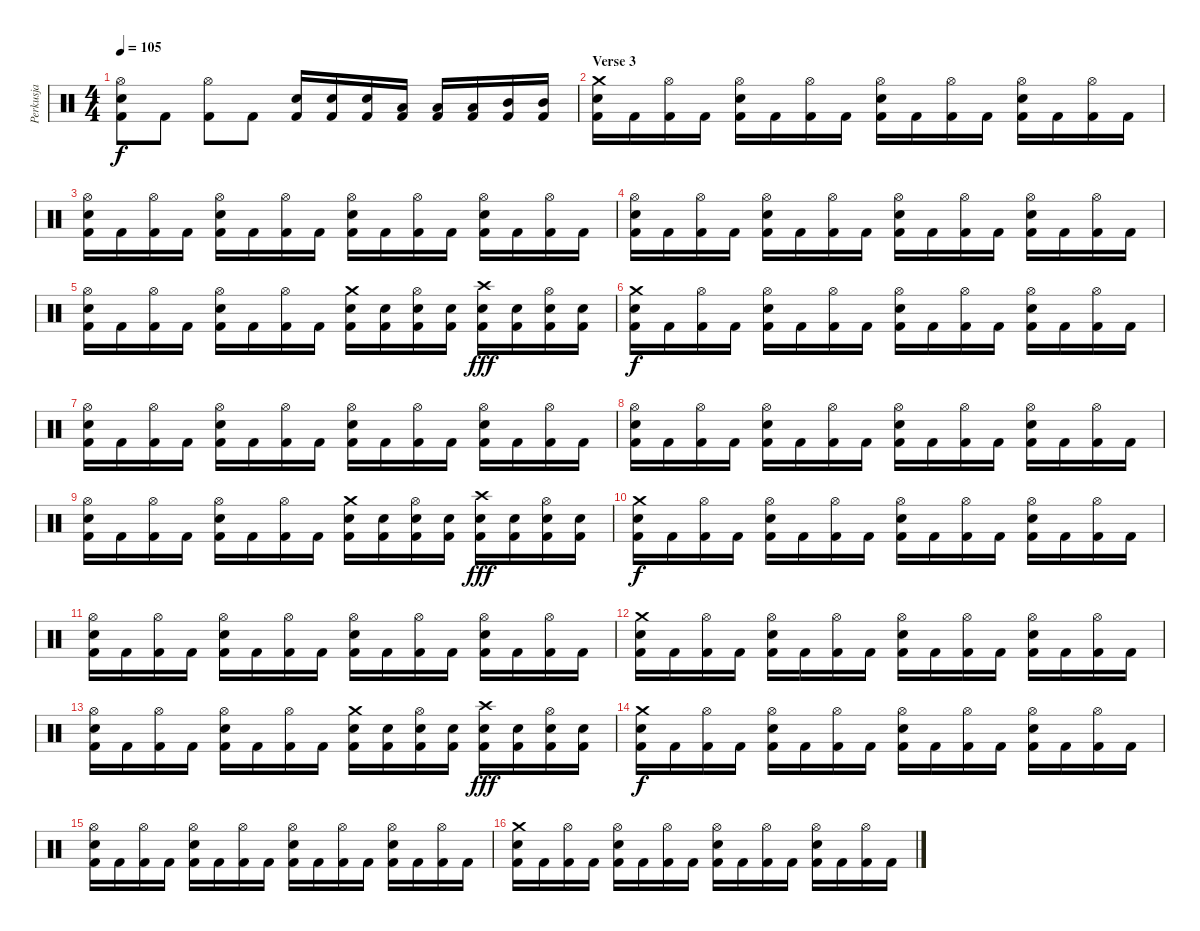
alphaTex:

\track ("Perkusja" "Perkusja") {instrument percussion}
\staff {score}
\articulation defaults
\ts (4 4)
\tempo 105
\clef neutral
\ks c
("Kick (hit) 2" "Snare (hit) 2" "Hi-Hat (open)").8{dy f} "Kick (hit) 2".8 ("Kick (hit) 2" "Hi-Hat (open)").8 "Kick (hit) 2".8 ("Kick (hit) 2" "Snare (hit) 2").16 ("Kick (hit) 2" "Snare (hit) 2").16 ("Kick (hit) 2" "Snare (hit) 2").16 ("Kick (hit) 2" "Low Tom (hit)").16 ("Kick (hit) 2" "Low Tom (hit)").16 ("Kick (hit) 2" "Low Tom (hit)").16 ("Kick (hit) 2" "Mid Tom (hit)").16 ("Kick (hit) 2" "Mid Tom (hit)").16 |
\section ("" "Verse 3")
("Kick (hit) 2" "Snare (hit) 2" "Crash medium (hit)").16 "Kick (hit) 2".16 ("Kick (hit) 2" "Hi-Hat (open)").16 "Kick (hit) 2".16 ("Kick (hit) 2" "Snare (hit) 2" "Hi-Hat (open)").16 "Kick (hit) 2".16 ("Kick (hit) 2" "Hi-Hat (open)").16 "Kick (hit) 2".16 ("Kick (hit) 2" "Snare (hit) 2" "Hi-Hat (open)").16 "Kick (hit) 2".16 ("Kick (hit) 2" "Hi-Hat (open)").16 "Kick (hit) 2".16 ("Kick (hit) 2" "Snare (hit) 2" "Hi-Hat (open)").16 "Kick (hit) 2".16 ("Kick (hit) 2" "Hi-Hat (open)").16 "Kick (hit) 2".16 |
("Kick (hit) 2" "Snare (hit) 2" "Hi-Hat (open)").16 "Kick (hit) 2".16 ("Kick (hit) 2" "Hi-Hat (open)").16 "Kick (hit) 2".16 ("Kick (hit) 2" "Snare (hit) 2" "Hi-Hat (open)").16 "Kick (hit) 2".16 ("Kick (hit) 2" "Hi-Hat (open)").16 "Kick (hit) 2".16 ("Kick (hit) 2" "Snare (hit) 2" "Hi-Hat (open)").16 "Kick (hit) 2".16 ("Kick (hit) 2" "Hi-Hat (open)").16 "Kick (hit) 2".16 ("Kick (hit) 2" "Snare (hit) 2" "Hi-Hat (open)").16 "Kick (hit) 2".16 ("Kick (hit) 2" "Hi-Hat (open)").16 "Kick (hit) 2".16 |
("Kick (hit) 2" "Snare (hit) 2" "Hi-Hat (open)").16 "Kick (hit) 2".16 ("Kick (hit) 2" "Hi-Hat (open)").16 "Kick (hit) 2".16 ("Kick (hit) 2" "Snare (hit) 2" "Hi-Hat (open)").16 "Kick (hit) 2".16 ("Kick (hit) 2" "Hi-Hat (open)").16 "Kick (hit) 2".16 ("Kick (hit) 2" "Snare (hit) 2" "Hi-Hat (open)").16 "Kick (hit) 2".16 ("Kick (hit) 2" "Hi-Hat (open)").16 "Kick (hit) 2".16 ("Kick (hit) 2" "Snare (hit) 2" "Hi-Hat (open)").16 "Kick (hit) 2".16 ("Kick (hit) 2" "Hi-Hat (open)").16 "Kick (hit) 2".16 |
("Kick (hit) 2" "Snare (hit) 2" "Hi-Hat (open)").16 "Kick (hit) 2".16 ("Kick (hit) 2" "Hi-Hat (open)").16 "Kick (hit) 2".16 ("Kick (hit) 2" "Snare (hit) 2" "Hi-Hat (open)").16 "Kick (hit) 2".16 ("Kick (hit) 2" "Hi-Hat (open)").16 "Kick (hit) 2".16 ("Kick (hit) 2" "Snare (hit) 2" "Crash medium (hit)").16 ("Kick (hit) 2" "Snare (hit) 2").16 ("Kick (hit) 2" "Snare (hit) 2" "Hi-Hat (open)").16 ("Kick (hit) 2" "Snare (hit) 2").16 ("Kick (hit) 2" "Electric Snare (hit)" "Crash high (hit)").16{dy fff} ("Kick (hit) 2" "Electric Snare (hit)").16 ("Kick (hit) 2" "Electric Snare (hit)" "Hi-Hat (open)").16 ("Kick (hit) 2" "Electric Snare (hit)").16 |
("Kick (hit) 2" "Snare (hit) 2" "Crash medium (hit)").16{dy f} "Kick (hit) 2".16 ("Kick (hit) 2" "Hi-Hat (open)").16 "Kick (hit) 2".16 ("Kick (hit) 2" "Snare (hit) 2" "Hi-Hat (open)").16 "Kick (hit) 2".16 ("Kick (hit) 2" "Hi-Hat (open)").16 "Kick (hit) 2".16 ("Kick (hit) 2" "Snare (hit) 2" "Hi-Hat (open)").16 "Kick (hit) 2".16 ("Kick (hit) 2" "Hi-Hat (open)").16 "Kick (hit) 2".16 ("Kick (hit) 2" "Snare (hit) 2" "Hi-Hat (open)").16 "Kick (hit) 2".16 ("Kick (hit) 2" "Hi-Hat (open)").16 "Kick (hit) 2".16 |
("Kick (hit) 2" "Snare (hit) 2" "Hi-Hat (open)").16 "Kick (hit) 2".16 ("Kick (hit) 2" "Hi-Hat (open)").16 "Kick (hit) 2".16 ("Kick (hit) 2" "Snare (hit) 2" "Hi-Hat (open)").16 "Kick (hit) 2".16 ("Kick (hit) 2" "Hi-Hat (open)").16 "Kick (hit) 2".16 ("Kick (hit) 2" "Snare (hit) 2" "Hi-Hat (open)").16 "Kick (hit) 2".16 ("Kick (hit) 2" "Hi-Hat (open)").16 "Kick (hit) 2".16 ("Kick (hit) 2" "Snare (hit) 2" "Hi-Hat (open)").16 "Kick (hit) 2".16 ("Kick (hit) 2" "Hi-Hat (open)").16 "Kick (hit) 2".16 |
("Kick (hit) 2" "Snare (hit) 2" "Hi-Hat (open)").16 "Kick (hit) 2".16 ("Kick (hit) 2" "Hi-Hat (open)").16 "Kick (hit) 2".16 ("Kick (hit) 2" "Snare (hit) 2" "Hi-Hat (open)").16 "Kick (hit) 2".16 ("Kick (hit) 2" "Hi-Hat (open)").16 "Kick (hit) 2".16 ("Kick (hit) 2" "Snare (hit) 2" "Hi-Hat (open)").16 "Kick (hit) 2".16 ("Kick (hit) 2" "Hi-Hat (open)").16 "Kick (hit) 2".16 ("Kick (hit) 2" "Snare (hit) 2" "Hi-Hat (open)").16 "Kick (hit) 2".16 ("Kick (hit) 2" "Hi-Hat (open)").16 "Kick (hit) 2".16 |
("Kick (hit) 2" "Snare (hit) 2" "Hi-Hat (open)").16 "Kick (hit) 2".16 ("Kick (hit) 2" "Hi-Hat (open)").16 "Kick (hit) 2".16 ("Kick (hit) 2" "Snare (hit) 2" "Hi-Hat (open)").16 "Kick (hit) 2".16 ("Kick (hit) 2" "Hi-Hat (open)").16 "Kick (hit) 2".16 ("Kick (hit) 2" "Snare (hit) 2" "Crash medium (hit)").16 ("Kick (hit) 2" "Snare (hit) 2").16 ("Kick (hit) 2" "Snare (hit) 2" "Hi-Hat (open)").16 ("Kick (hit) 2" "Snare (hit) 2").16 ("Kick (hit) 2" "Electric Snare (hit)" "Crash high (hit)").16{dy fff} ("Kick (hit) 2" "Electric Snare (hit)").16 ("Kick (hit) 2" "Electric Snare (hit)" "Hi-Hat (open)").16 ("Kick (hit) 2" "Electric Snare (hit)").16 |
("Kick (hit) 2" "Snare (hit) 2" "Crash medium (hit)").16{dy f} "Kick (hit) 2".16 ("Kick (hit) 2" "Hi-Hat (open)").16 "Kick (hit) 2".16 ("Kick (hit) 2" "Snare (hit) 2" "Hi-Hat (open)").16 "Kick (hit) 2".16 ("Kick (hit) 2" "Hi-Hat (open)").16 "Kick (hit) 2".16 ("Kick (hit) 2" "Snare (hit) 2" "Hi-Hat (open)").16 "Kick (hit) 2".16 ("Kick (hit) 2" "Hi-Hat (open)").16 "Kick (hit) 2".16 ("Kick (hit) 2" "Snare (hit) 2" "Hi-Hat (open)").16 "Kick (hit) 2".16 ("Kick (hit) 2" "Hi-Hat (open)").16 "Kick (hit) 2".16 |
("Kick (hit) 2" "Snare (hit) 2" "Hi-Hat (open)").16 "Kick (hit) 2".16 ("Kick (hit) 2" "Hi-Hat (open)").16 "Kick (hit) 2".16 ("Kick (hit) 2" "Snare (hit) 2" "Hi-Hat (open)").16 "Kick (hit) 2".16 ("Kick (hit) 2" "Hi-Hat (open)").16 "Kick (hit) 2".16 ("Kick (hit) 2" "Snare (hit) 2" "Hi-Hat (open)").16 "Kick (hit) 2".16 ("Kick (hit) 2" "Hi-Hat (open)").16 "Kick (hit) 2".16 ("Kick (hit) 2" "Snare (hit) 2" "Hi-Hat (open)").16 "Kick (hit) 2".16 ("Kick (hit) 2" "Hi-Hat (open)").16 "Kick (hit) 2".16 |
("Kick (hit) 2" "Snare (hit) 2" "Crash medium (hit)").16 "Kick (hit) 2".16 ("Kick (hit) 2" "Hi-Hat (open)").16 "Kick (hit) 2".16 ("Kick (hit) 2" "Snare (hit) 2" "Hi-Hat (open)").16 "Kick (hit) 2".16 ("Kick (hit) 2" "Hi-Hat (open)").16 "Kick (hit) 2".16 ("Kick (hit) 2" "Snare (hit) 2" "Hi-Hat (open)").16 "Kick (hit) 2".16 ("Kick (hit) 2" "Hi-Hat (open)").16 "Kick (hit) 2".16 ("Kick (hit) 2" "Snare (hit) 2" "Hi-Hat (open)").16 "Kick (hit) 2".16 ("Kick (hit) 2" "Hi-Hat (open)").16 "Kick (hit) 2".16 |
("Kick (hit) 2" "Snare (hit) 2" "Hi-Hat (open)").16 "Kick (hit) 2".16 ("Kick (hit) 2" "Hi-Hat (open)").16 "Kick (hit) 2".16 ("Kick (hit) 2" "Snare (hit) 2" "Hi-Hat (open)").16 "Kick (hit) 2".16 ("Kick (hit) 2" "Hi-Hat (open)").16 "Kick (hit) 2".16 ("Kick (hit) 2" "Snare (hit) 2" "Crash medium (hit)").16 ("Kick (hit) 2" "Snare (hit) 2").16 ("Kick (hit) 2" "Snare (hit) 2" "Hi-Hat (open)").16 ("Kick (hit) 2" "Snare (hit) 2").16 ("Kick (hit) 2" "Electric Snare (hit)" "Crash high (hit)").16{dy fff} ("Kick (hit) 2" "Electric Snare (hit)").16 ("Kick (hit) 2" "Electric Snare (hit)" "Hi-Hat (open)").16 ("Kick (hit) 2" "Electric Snare (hit)").16 |
("Kick (hit) 2" "Snare (hit) 2" "Crash medium (hit)").16{dy f} "Kick (hit) 2".16 ("Kick (hit) 2" "Hi-Hat (open)").16 "Kick (hit) 2".16 ("Kick (hit) 2" "Snare (hit) 2" "Hi-Hat (open)").16 "Kick (hit) 2".16 ("Kick (hit) 2" "Hi-Hat (open)").16 "Kick (hit) 2".16 ("Kick (hit) 2" "Snare (hit) 2" "Hi-Hat (open)").16 "Kick (hit) 2".16 ("Kick (hit) 2" "Hi-Hat (open)").16 "Kick (hit) 2".16 ("Kick (hit) 2" "Snare (hit) 2" "Hi-Hat (open)").16 "Kick (hit) 2".16 ("Kick (hit) 2" "Hi-Hat (open)").16 "Kick (hit) 2".16 |
("Kick (hit) 2" "Snare (hit) 2" "Hi-Hat (open)").16 "Kick (hit) 2".16 ("Kick (hit) 2" "Hi-Hat (open)").16 "Kick (hit) 2".16 ("Kick (hit) 2" "Snare (hit) 2" "Hi-Hat (open)").16 "Kick (hit) 2".16 ("Kick (hit) 2" "Hi-Hat (open)").16 "Kick (hit) 2".16 ("Kick (hit) 2" "Snare (hit) 2" "Hi-Hat (open)").16 "Kick (hit) 2".16 ("Kick (hit) 2" "Hi-Hat (open)").16 "Kick (hit) 2".16 ("Kick (hit) 2" "Snare (hit) 2" "Hi-Hat (open)").16 "Kick (hit) 2".16 ("Kick (hit) 2" "Hi-Hat (open)").16 "Kick (hit) 2".16 |
("Kick (hit) 2" "Snare (hit) 2" "Crash medium (hit)").16 "Kick (hit) 2".16 ("Kick (hit) 2" "Hi-Hat (open)").16 "Kick (hit) 2".16 ("Kick (hit) 2" "Snare (hit) 2" "Hi-Hat (open)").16 "Kick (hit) 2".16 ("Kick (hit) 2" "Hi-Hat (open)").16 "Kick (hit) 2".16 ("Kick (hit) 2" "Snare (hit) 2" "Hi-Hat (open)").16 "Kick (hit) 2".16 ("Kick (hit) 2" "Hi-Hat (open)").16 "Kick (hit) 2".16 ("Kick (hit) 2" "Snare (hit) 2" "Hi-Hat (open)").16 "Kick (hit) 2".16 ("Kick (hit) 2" "Hi-Hat (open)").16 "Kick (hit) 2".16
